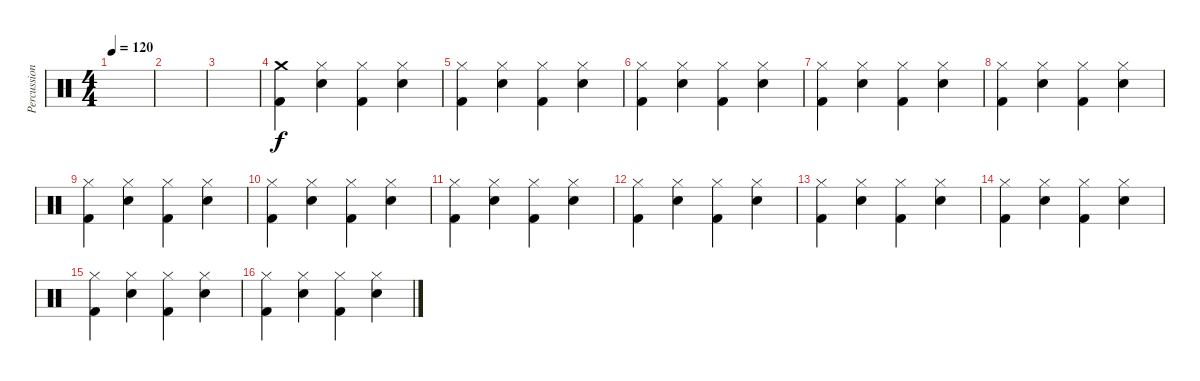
\track ("Percussion" "Percussion") {instrument percussion}
\staff {score}
\articulation defaults
\ts (4 4)
\tempo 120
\clef neutral
\ks c
|
|
|
("Kick (hit) 2" "Crash medium (hit)").4 ("Electric Snare (hit)" "Hi-Hat (closed)").4 ("Hi-Hat (closed)" "Kick (hit) 2").4 ("Electric Snare (hit)" "Hi-Hat (closed)").4 |
("Hi-Hat (closed)" "Kick (hit) 2").4 ("Electric Snare (hit)" "Hi-Hat (closed)").4 ("Hi-Hat (closed)" "Kick (hit) 2").4 ("Electric Snare (hit)" "Hi-Hat (closed)").4 |
("Hi-Hat (closed)" "Kick (hit) 2").4 ("Electric Snare (hit)" "Hi-Hat (closed)").4 ("Hi-Hat (closed)" "Kick (hit) 2").4 ("Electric Snare (hit)" "Hi-Hat (closed)").4 |
("Hi-Hat (closed)" "Kick (hit) 2").4 ("Electric Snare (hit)" "Hi-Hat (closed)").4 ("Hi-Hat (closed)" "Kick (hit) 2").4 ("Electric Snare (hit)" "Hi-Hat (closed)").4 |
("Hi-Hat (closed)" "Kick (hit) 2").4 ("Electric Snare (hit)" "Hi-Hat (closed)").4 ("Hi-Hat (closed)" "Kick (hit) 2").4 ("Electric Snare (hit)" "Hi-Hat (closed)").4 |
("Hi-Hat (closed)" "Kick (hit) 2").4 ("Electric Snare (hit)" "Hi-Hat (closed)").4 ("Hi-Hat (closed)" "Kick (hit) 2").4 ("Electric Snare (hit)" "Hi-Hat (closed)").4 |
("Hi-Hat (closed)" "Kick (hit) 2").4 ("Electric Snare (hit)" "Hi-Hat (closed)").4 ("Hi-Hat (closed)" "Kick (hit) 2").4 ("Electric Snare (hit)" "Hi-Hat (closed)").4 |
("Hi-Hat (closed)" "Kick (hit) 2").4 ("Electric Snare (hit)" "Hi-Hat (closed)").4 ("Hi-Hat (closed)" "Kick (hit) 2").4 ("Electric Snare (hit)" "Hi-Hat (closed)").4 |
("Hi-Hat (closed)" "Kick (hit) 2").4 ("Electric Snare (hit)" "Hi-Hat (closed)").4 ("Hi-Hat (closed)" "Kick (hit) 2").4 ("Electric Snare (hit)" "Hi-Hat (closed)").4 |
("Hi-Hat (closed)" "Kick (hit) 2").4 ("Electric Snare (hit)" "Hi-Hat (closed)").4 ("Hi-Hat (closed)" "Kick (hit) 2").4 ("Electric Snare (hit)" "Hi-Hat (closed)").4 |
("Hi-Hat (closed)" "Kick (hit) 2").4 ("Electric Snare (hit)" "Hi-Hat (closed)").4 ("Hi-Hat (closed)" "Kick (hit) 2").4 ("Electric Snare (hit)" "Hi-Hat (closed)").4 |
("Hi-Hat (closed)" "Kick (hit) 2").4 ("Electric Snare (hit)" "Hi-Hat (closed)").4 ("Hi-Hat (closed)" "Kick (hit) 2").4 ("Electric Snare (hit)" "Hi-Hat (closed)").4 |
("Hi-Hat (closed)" "Kick (hit) 2").4 ("Electric Snare (hit)" "Hi-Hat (closed)").4 ("Hi-Hat (closed)" "Kick (hit) 2").4 ("Electric Snare (hit)" "Hi-Hat (closed)").4
